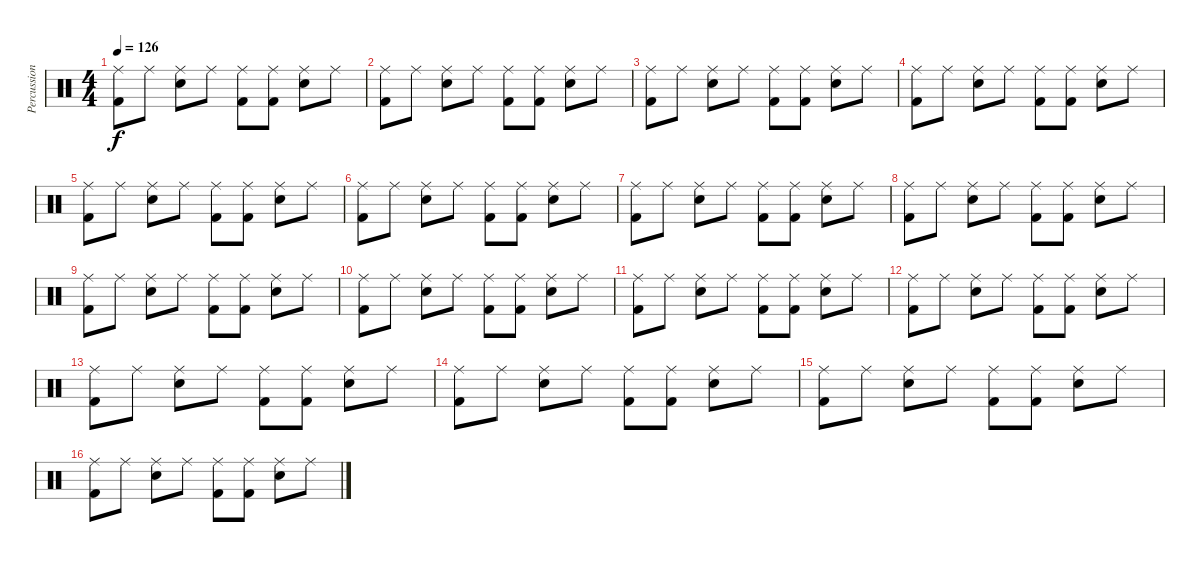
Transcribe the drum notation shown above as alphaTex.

\track ("Percussions" "Percussion") {instrument percussion}
\staff {score}
\articulation defaults
\ts (4 4)
\tempo 126
\clef neutral
\ks c
("Ride (middle)" "Kick (hit) 2").8{dy f} "Ride (middle)".8 ("Ride (middle)" "Snare (hit) 2").8 "Ride (middle)".8 ("Ride (middle)" "Kick (hit) 2").8 ("Ride (middle)" "Kick (hit) 2").8 ("Ride (middle)" "Snare (hit) 2").8 "Ride (middle)".8 |
("Ride (middle)" "Kick (hit) 2").8 "Ride (middle)".8 ("Ride (middle)" "Snare (hit) 2").8 "Ride (middle)".8 ("Ride (middle)" "Kick (hit) 2").8 ("Ride (middle)" "Kick (hit) 2").8 ("Ride (middle)" "Snare (hit) 2").8 "Ride (middle)".8 |
("Ride (middle)" "Kick (hit) 2").8 "Ride (middle)".8 ("Ride (middle)" "Snare (hit) 2").8 "Ride (middle)".8 ("Ride (middle)" "Kick (hit) 2").8 ("Ride (middle)" "Kick (hit) 2").8 ("Ride (middle)" "Snare (hit) 2").8 "Ride (middle)".8 |
("Ride (middle)" "Kick (hit) 2").8 "Ride (middle)".8 ("Ride (middle)" "Snare (hit) 2").8 "Ride (middle)".8 ("Ride (middle)" "Kick (hit) 2").8 ("Ride (middle)" "Kick (hit) 2").8 ("Ride (middle)" "Snare (hit) 2").8 "Ride (middle)".8 |
("Ride (middle)" "Kick (hit) 2").8 "Ride (middle)".8 ("Ride (middle)" "Snare (hit) 2").8 "Ride (middle)".8 ("Ride (middle)" "Kick (hit) 2").8 ("Ride (middle)" "Kick (hit) 2").8 ("Ride (middle)" "Snare (hit) 2").8 "Ride (middle)".8 |
("Ride (middle)" "Kick (hit) 2").8 "Ride (middle)".8 ("Ride (middle)" "Snare (hit) 2").8 "Ride (middle)".8 ("Ride (middle)" "Kick (hit) 2").8 ("Ride (middle)" "Kick (hit) 2").8 ("Ride (middle)" "Snare (hit) 2").8 "Ride (middle)".8 |
("Ride (middle)" "Kick (hit) 2").8 "Ride (middle)".8 ("Ride (middle)" "Snare (hit) 2").8 "Ride (middle)".8 ("Ride (middle)" "Kick (hit) 2").8 ("Ride (middle)" "Kick (hit) 2").8 ("Ride (middle)" "Snare (hit) 2").8 "Ride (middle)".8 |
("Ride (middle)" "Kick (hit) 2").8 "Ride (middle)".8 ("Ride (middle)" "Snare (hit) 2").8 "Ride (middle)".8 ("Ride (middle)" "Kick (hit) 2").8 ("Ride (middle)" "Kick (hit) 2").8 ("Ride (middle)" "Snare (hit) 2").8 "Ride (middle)".8 |
("Ride (middle)" "Kick (hit) 2").8 "Ride (middle)".8 ("Ride (middle)" "Snare (hit) 2").8 "Ride (middle)".8 ("Ride (middle)" "Kick (hit) 2").8 ("Ride (middle)" "Kick (hit) 2").8 ("Ride (middle)" "Snare (hit) 2").8 "Ride (middle)".8 |
("Ride (middle)" "Kick (hit) 2").8 "Ride (middle)".8 ("Ride (middle)" "Snare (hit) 2").8 "Ride (middle)".8 ("Ride (middle)" "Kick (hit) 2").8 ("Ride (middle)" "Kick (hit) 2").8 ("Ride (middle)" "Snare (hit) 2").8 "Ride (middle)".8 |
("Ride (middle)" "Kick (hit) 2").8 "Ride (middle)".8 ("Ride (middle)" "Snare (hit) 2").8 "Ride (middle)".8 ("Ride (middle)" "Kick (hit) 2").8 ("Ride (middle)" "Kick (hit) 2").8 ("Ride (middle)" "Snare (hit) 2").8 "Ride (middle)".8 |
("Ride (middle)" "Kick (hit) 2").8 "Ride (middle)".8 ("Ride (middle)" "Snare (hit) 2").8 "Ride (middle)".8 ("Ride (middle)" "Kick (hit) 2").8 ("Ride (middle)" "Kick (hit) 2").8 ("Ride (middle)" "Snare (hit) 2").8 "Ride (middle)".8 |
("Ride (middle)" "Kick (hit) 2").8 "Ride (middle)".8 ("Ride (middle)" "Snare (hit) 2").8 "Ride (middle)".8 ("Ride (middle)" "Kick (hit) 2").8 ("Ride (middle)" "Kick (hit) 2").8 ("Ride (middle)" "Snare (hit) 2").8 "Ride (middle)".8 |
("Ride (middle)" "Kick (hit) 2").8 "Ride (middle)".8 ("Ride (middle)" "Snare (hit) 2").8 "Ride (middle)".8 ("Ride (middle)" "Kick (hit) 2").8 ("Ride (middle)" "Kick (hit) 2").8 ("Ride (middle)" "Snare (hit) 2").8 "Ride (middle)".8 |
("Ride (middle)" "Kick (hit) 2").8 "Ride (middle)".8 ("Ride (middle)" "Snare (hit) 2").8 "Ride (middle)".8 ("Ride (middle)" "Kick (hit) 2").8 ("Ride (middle)" "Kick (hit) 2").8 ("Ride (middle)" "Snare (hit) 2").8 "Ride (middle)".8 |
("Ride (middle)" "Kick (hit) 2").8 "Ride (middle)".8 ("Ride (middle)" "Snare (hit) 2").8 "Ride (middle)".8 ("Ride (middle)" "Kick (hit) 2").8 ("Ride (middle)" "Kick (hit) 2").8 ("Ride (middle)" "Snare (hit) 2").8 "Ride (middle)".8
